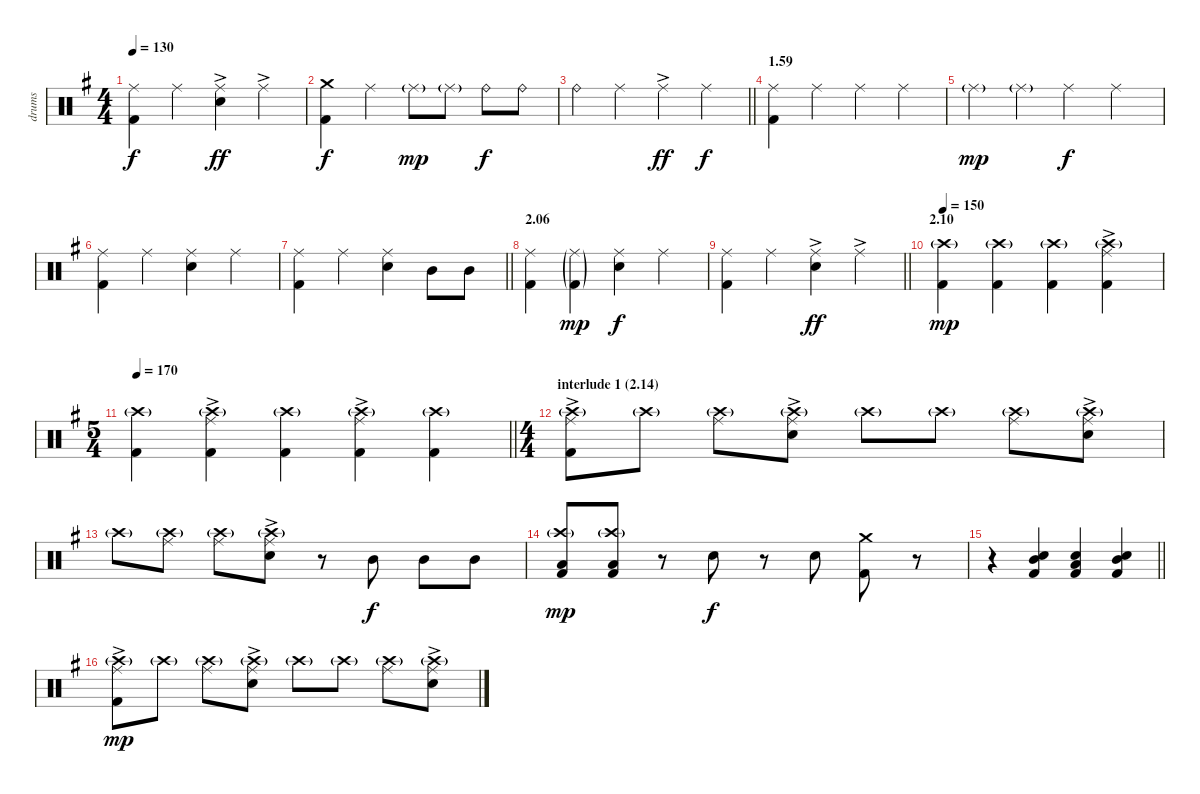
\track ("drums" "drums") {instrument percussion}
\staff {score}
\articulation defaults
\ts (4 4)
\tempo 130
\clef neutral
\ks g
("Ride (middle)" "Kick (hit) 2").4{dy f} "Ride (middle)".4 ("Ride (middle)"{ac} "Electric Snare (hit)").4{dy ff} "Ride (middle)"{ac}.4 |
("Crash medium (hit)" "Kick (hit) 2").4{dy f} "Ride (middle)".4 "Ride (middle)"{g}.8{dy mp} "Ride (middle)"{g}.8 "Ride (bell)".8{dy f} "Ride (bell)".8 |
\barLineRight lightlight "Ride (bell)".4 "Ride (middle)".4 "Ride (middle)"{ac}.4{dy ff} "Ride (middle)".4{dy f}
|
\section ("" "1.59")
("Ride (middle)" "Kick (hit) 2").4 "Ride (middle)".4 "Ride (middle)".4 "Ride (middle)".4 |
"Ride (middle)"{g}.4{dy mp} "Ride (middle)"{g}.4 "Ride (middle)".4{dy f} "Ride (middle)".4 |
("Ride (middle)" "Kick (hit) 2").4 "Ride (middle)".4 ("Ride (middle)" "Electric Snare (hit)").4 "Ride (middle)".4 |
\barLineRight lightlight
("Ride (middle)" "Kick (hit) 2").4 "Ride (middle)".4 ("Ride (middle)" "Electric Snare (hit)").4 "Mid Tom (hit)".8 "Mid Tom (hit)".8 |
\section ("" "2.06")
("Ride (middle)" "Kick (hit) 2").4 ("Ride (middle)"{g} "Kick (hit) 2"{g}).4{dy mp} ("Ride (middle)" "Electric Snare (hit)").4{dy f} "Ride (middle)".4 |
\barLineRight lightlight
("Ride (middle)" "Kick (hit) 2").4 "Ride (middle)".4 ("Ride (middle)"{ac} "Electric Snare (hit)").4{dy ff} "Ride (middle)"{ac}.4 |
\section ("" "2.10")
\tempo 150
("Crash high (hit)"{g} "Kick (hit) 2").4{dy mp} ("Crash high (hit)"{g} "Kick (hit) 2").4 ("Crash high (hit)"{g} "Kick (hit) 2").4 ("Ride (middle)"{ac} "Crash high (hit)"{g} "Kick (hit) 2").4 |
\ts (5 4)
\tempo 170
\barLineRight lightlight
("Crash high (hit)"{g} "Kick (hit) 2").4 ("Ride (middle)"{ac} "Crash high (hit)"{g} "Kick (hit) 2").4 ("Crash high (hit)"{g} "Kick (hit) 2").4 ("Ride (middle)"{ac} "Crash high (hit)"{g} "Kick (hit) 2").4 ("Crash high (hit)"{g} "Kick (hit) 2").4 |
\ts (4 4)
\section ("" "interlude 1 (2.14)")
("Ride (middle)"{ac} "Crash high (hit)"{g} "Kick (hit) 2").8 "Crash high (hit)"{g}.8 ("Ride (middle)" "Crash high (hit)"{g}).8 ("Ride (middle)"{ac} "Crash high (hit)"{g} "Electric Snare (hit)").8 "Crash high (hit)"{g}.8 "Crash high (hit)"{g}.8 ("Ride (middle)" "Crash high (hit)"{g}).8 ("Ride (middle)"{ac} "Crash high (hit)"{g} "Electric Snare (hit)").8 |
"Crash high (hit)"{g}.8 ("Ride (middle)" "Crash high (hit)"{g}).8 ("Ride (middle)" "Crash high (hit)"{g}).8 ("Ride (middle)"{ac} "Crash high (hit)"{g} "Electric Snare (hit)").8 r.8 "Mid Tom (hit)".8{dy f} "Mid Tom (hit)".8 "Mid Tom (hit)".8 |
("Crash high (hit)"{g} "Low Tom (hit)" "Kick (hit) 2").8{dy mp} ("Crash high (hit)"{g} "Low Tom (hit)" "Kick (hit) 2").8 r.8 "Electric Snare (hit)".8{dy f} r.8 "Electric Snare (hit)".8 ("Crash medium (hit)" "Kick (hit) 2").8 r.8 |
\barLineRight lightlight
r.4 ("Mid Tom (hit)" "Electric Snare (hit)" "Kick (hit) 2").4 ("Low Tom (hit)" "Electric Snare (hit)" "Kick (hit) 2").4 ("Mid Tom (hit)" "Electric Snare (hit)" "Kick (hit) 2").4 |
("Ride (middle)"{ac} "Crash high (hit)"{g} "Kick (hit) 2").8{dy mp} "Crash high (hit)"{g}.8 ("Ride (middle)" "Crash high (hit)"{g}).8 ("Ride (middle)"{ac} "Crash high (hit)"{g} "Electric Snare (hit)").8 "Crash high (hit)"{g}.8 "Crash high (hit)"{g}.8 ("Ride (middle)" "Crash high (hit)"{g}).8 ("Ride (middle)"{ac} "Crash high (hit)"{g} "Electric Snare (hit)").8
